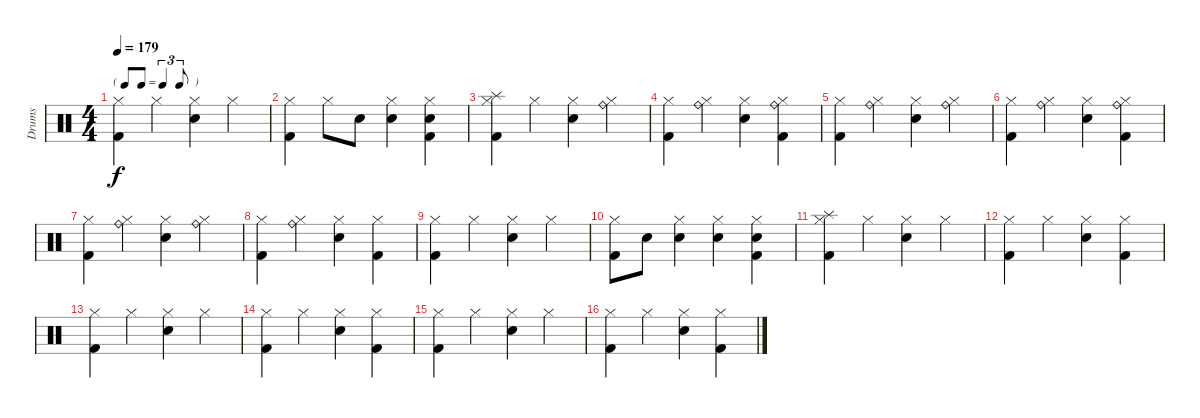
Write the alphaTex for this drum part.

\track ("Drums" "Drums") {instrument percussion}
\staff {score}
\articulation defaults
\ts (4 4)
\tf triplet8th
\tempo 179
\clef neutral
\ks c
("Hi-Hat (closed)" "Kick (hit) 2").4{dy f} "Hi-Hat (closed)".4 ("Hi-Hat (closed)" "Snare (hit) 2").4 "Hi-Hat (closed)".4 |
("Hi-Hat (closed)" "Kick (hit) 2").4 "Hi-Hat (closed)".8 "Snare (hit) 2".8 ("Hi-Hat (closed)" "Snare (hit) 2").4 ("Hi-Hat (closed)" "Snare (hit) 2" "Kick (hit) 2").4 |
("Hi-Hat (closed)" "Splash (hit)" "Kick (hit) 2").4 "Hi-Hat (closed)".4 ("Hi-Hat (closed)" "Snare (hit) 2").4 ("Hi-Hat (closed)" "Ride (bell)").4 |
("Hi-Hat (closed)" "Kick (hit) 2").4 ("Hi-Hat (closed)" "Ride (bell)").4 ("Hi-Hat (closed)" "Snare (hit) 2").4 ("Hi-Hat (closed)" "Ride (bell)" "Kick (hit) 2").4 |
("Hi-Hat (closed)" "Kick (hit) 2").4 ("Hi-Hat (closed)" "Ride (bell)").4 ("Hi-Hat (closed)" "Snare (hit) 2").4 ("Hi-Hat (closed)" "Ride (bell)").4 |
("Hi-Hat (closed)" "Kick (hit) 2").4 ("Hi-Hat (closed)" "Ride (bell)").4 ("Hi-Hat (closed)" "Snare (hit) 2").4 ("Hi-Hat (closed)" "Ride (bell)" "Kick (hit) 2").4 |
("Hi-Hat (closed)" "Kick (hit) 2").4 ("Hi-Hat (closed)" "Ride (bell)").4 ("Hi-Hat (closed)" "Snare (hit) 2").4 ("Hi-Hat (closed)" "Ride (bell)").4 |
("Hi-Hat (closed)" "Kick (hit) 2").4 ("Hi-Hat (closed)" "Ride (bell)").4 ("Hi-Hat (closed)" "Snare (hit) 2").4 ("Hi-Hat (closed)" "Kick (hit) 2").4 |
("Hi-Hat (closed)" "Kick (hit) 2").4 "Hi-Hat (closed)".4 ("Hi-Hat (closed)" "Snare (hit) 2").4 "Hi-Hat (closed)".4 |
("Hi-Hat (closed)" "Kick (hit) 2").8 "Snare (hit) 2".8 ("Hi-Hat (closed)" "Snare (hit) 2").4 ("Hi-Hat (closed)" "Snare (hit) 2").4 ("Hi-Hat (closed)" "Snare (hit) 2" "Kick (hit) 2").4 |
("Hi-Hat (closed)" "Splash (hit)" "Kick (hit) 2").4 "Hi-Hat (closed)".4 ("Hi-Hat (closed)" "Snare (hit) 2").4 "Hi-Hat (closed)".4 |
("Hi-Hat (closed)" "Kick (hit) 2").4 "Hi-Hat (closed)".4 ("Hi-Hat (closed)" "Snare (hit) 2").4 ("Hi-Hat (closed)" "Kick (hit) 2").4 |
("Hi-Hat (closed)" "Kick (hit) 2").4 "Hi-Hat (closed)".4 ("Hi-Hat (closed)" "Snare (hit) 2").4 "Hi-Hat (closed)".4 |
("Hi-Hat (closed)" "Kick (hit) 2").4 "Hi-Hat (closed)".4 ("Hi-Hat (closed)" "Snare (hit) 2").4 ("Hi-Hat (closed)" "Kick (hit) 2").4 |
("Hi-Hat (closed)" "Kick (hit) 2").4 "Hi-Hat (closed)".4 ("Hi-Hat (closed)" "Snare (hit) 2").4 "Hi-Hat (closed)".4 |
("Hi-Hat (closed)" "Kick (hit) 2").4 "Hi-Hat (closed)".4 ("Hi-Hat (closed)" "Snare (hit) 2").4 ("Hi-Hat (closed)" "Kick (hit) 2").4
